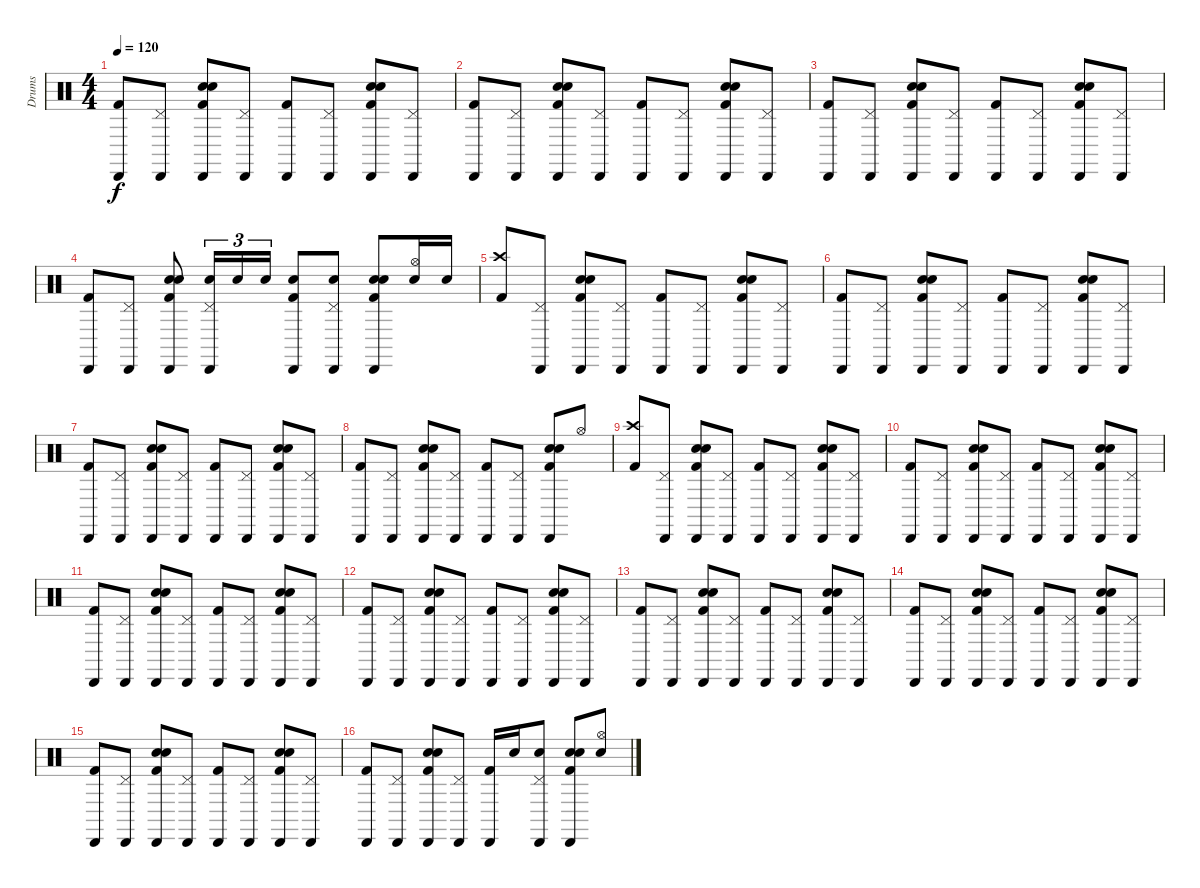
\track ("Drums" "Drums") {instrument percussion}
\staff {score}
\articulation defaults
\ts (4 4)
\tempo 120
\clef neutral
\ks c
("Cabasa (hit)" "Kick (hit) 2").8{dy f} ("Cabasa (hit)" "Pedal Hi-Hat (hit)").8 ("Hand Clap (hit)" "Cabasa (hit)" "Electric Snare (hit)" "Kick (hit) 2").8 ("Cabasa (hit)" "Pedal Hi-Hat (hit)").8 ("Cabasa (hit)" "Kick (hit) 2").8 ("Cabasa (hit)" "Pedal Hi-Hat (hit)").8 ("Hand Clap (hit)" "Cabasa (hit)" "Electric Snare (hit)" "Kick (hit) 2").8 ("Cabasa (hit)" "Pedal Hi-Hat (hit)").8 |
("Cabasa (hit)" "Kick (hit) 2").8 ("Cabasa (hit)" "Pedal Hi-Hat (hit)").8 ("Hand Clap (hit)" "Cabasa (hit)" "Electric Snare (hit)" "Kick (hit) 2").8 ("Cabasa (hit)" "Pedal Hi-Hat (hit)").8 ("Cabasa (hit)" "Kick (hit) 2").8 ("Cabasa (hit)" "Pedal Hi-Hat (hit)").8 ("Hand Clap (hit)" "Cabasa (hit)" "Electric Snare (hit)" "Kick (hit) 2").8 ("Cabasa (hit)" "Pedal Hi-Hat (hit)").8 |
("Cabasa (hit)" "Kick (hit) 2").8 ("Cabasa (hit)" "Pedal Hi-Hat (hit)").8 ("Hand Clap (hit)" "Cabasa (hit)" "Electric Snare (hit)" "Kick (hit) 2").8 ("Cabasa (hit)" "Pedal Hi-Hat (hit)").8 ("Cabasa (hit)" "Kick (hit) 2").8 ("Cabasa (hit)" "Pedal Hi-Hat (hit)").8 ("Hand Clap (hit)" "Cabasa (hit)" "Electric Snare (hit)" "Kick (hit) 2").8 ("Cabasa (hit)" "Pedal Hi-Hat (hit)").8 |
("Cabasa (hit)" "Kick (hit) 2").8 ("Cabasa (hit)" "Pedal Hi-Hat (hit)").8 ("Hand Clap (hit)" "Cabasa (hit)" "Electric Snare (hit)" "Kick (hit) 2").8 ("Cabasa (hit)" "Pedal Hi-Hat (hit)" "Electric Snare (hit)").16{tu (3 2)} "Electric Snare (hit)".16{tu (3 2)} "Electric Snare (hit)".16{tu (3 2)} ("Cabasa (hit)" "Electric Snare (hit)" "Kick (hit) 2").8 ("Cabasa (hit)" "Pedal Hi-Hat (hit)" "Electric Snare (hit)").8 ("Hand Clap (hit)" "Cabasa (hit)" "Electric Snare (hit)" "Kick (hit) 2").8 ("Hi-Hat (open)" "Electric Snare (hit)").16 "Electric Snare (hit)".16 |
("Crash high (hit)" "Kick (hit) 2").8 ("Cabasa (hit)" "Pedal Hi-Hat (hit)").8 ("Hand Clap (hit)" "Cabasa (hit)" "Electric Snare (hit)" "Kick (hit) 2").8 ("Cabasa (hit)" "Pedal Hi-Hat (hit)").8 ("Cabasa (hit)" "Kick (hit) 2").8 ("Cabasa (hit)" "Pedal Hi-Hat (hit)").8 ("Hand Clap (hit)" "Cabasa (hit)" "Electric Snare (hit)" "Kick (hit) 2").8 ("Cabasa (hit)" "Pedal Hi-Hat (hit)").8 |
("Cabasa (hit)" "Kick (hit) 2").8 ("Cabasa (hit)" "Pedal Hi-Hat (hit)").8 ("Hand Clap (hit)" "Cabasa (hit)" "Electric Snare (hit)" "Kick (hit) 2").8 ("Cabasa (hit)" "Pedal Hi-Hat (hit)").8 ("Cabasa (hit)" "Kick (hit) 2").8 ("Cabasa (hit)" "Pedal Hi-Hat (hit)").8 ("Hand Clap (hit)" "Cabasa (hit)" "Electric Snare (hit)" "Kick (hit) 2").8 ("Cabasa (hit)" "Pedal Hi-Hat (hit)").8 |
("Cabasa (hit)" "Kick (hit) 2").8 ("Cabasa (hit)" "Pedal Hi-Hat (hit)").8 ("Hand Clap (hit)" "Cabasa (hit)" "Electric Snare (hit)" "Kick (hit) 2").8 ("Cabasa (hit)" "Pedal Hi-Hat (hit)").8 ("Cabasa (hit)" "Kick (hit) 2").8 ("Cabasa (hit)" "Pedal Hi-Hat (hit)").8 ("Hand Clap (hit)" "Cabasa (hit)" "Electric Snare (hit)" "Kick (hit) 2").8 ("Cabasa (hit)" "Pedal Hi-Hat (hit)").8 |
("Cabasa (hit)" "Kick (hit) 2").8 ("Cabasa (hit)" "Pedal Hi-Hat (hit)").8 ("Hand Clap (hit)" "Cabasa (hit)" "Electric Snare (hit)" "Kick (hit) 2").8 ("Cabasa (hit)" "Pedal Hi-Hat (hit)").8 ("Cabasa (hit)" "Kick (hit) 2").8 ("Cabasa (hit)" "Pedal Hi-Hat (hit)").8 ("Hand Clap (hit)" "Cabasa (hit)" "Electric Snare (hit)" "Kick (hit) 2").8 "Hi-Hat (open)".8 |
("Crash high (hit)" "Kick (hit) 2").8 ("Cabasa (hit)" "Pedal Hi-Hat (hit)").8 ("Hand Clap (hit)" "Cabasa (hit)" "Electric Snare (hit)" "Kick (hit) 2").8 ("Cabasa (hit)" "Pedal Hi-Hat (hit)").8 ("Cabasa (hit)" "Kick (hit) 2").8 ("Cabasa (hit)" "Pedal Hi-Hat (hit)").8 ("Hand Clap (hit)" "Cabasa (hit)" "Electric Snare (hit)" "Kick (hit) 2").8 ("Cabasa (hit)" "Pedal Hi-Hat (hit)").8 |
("Cabasa (hit)" "Kick (hit) 2").8 ("Cabasa (hit)" "Pedal Hi-Hat (hit)").8 ("Hand Clap (hit)" "Cabasa (hit)" "Electric Snare (hit)" "Kick (hit) 2").8 ("Cabasa (hit)" "Pedal Hi-Hat (hit)").8 ("Cabasa (hit)" "Kick (hit) 2").8 ("Cabasa (hit)" "Pedal Hi-Hat (hit)").8 ("Hand Clap (hit)" "Cabasa (hit)" "Electric Snare (hit)" "Kick (hit) 2").8 ("Cabasa (hit)" "Pedal Hi-Hat (hit)").8 |
("Cabasa (hit)" "Kick (hit) 2").8 ("Cabasa (hit)" "Pedal Hi-Hat (hit)").8 ("Hand Clap (hit)" "Cabasa (hit)" "Electric Snare (hit)" "Kick (hit) 2").8 ("Cabasa (hit)" "Pedal Hi-Hat (hit)").8 ("Cabasa (hit)" "Kick (hit) 2").8 ("Cabasa (hit)" "Pedal Hi-Hat (hit)").8 ("Hand Clap (hit)" "Cabasa (hit)" "Electric Snare (hit)" "Kick (hit) 2").8 ("Cabasa (hit)" "Pedal Hi-Hat (hit)").8 |
("Cabasa (hit)" "Kick (hit) 2").8 ("Cabasa (hit)" "Pedal Hi-Hat (hit)").8 ("Hand Clap (hit)" "Cabasa (hit)" "Electric Snare (hit)" "Kick (hit) 2").8 ("Cabasa (hit)" "Pedal Hi-Hat (hit)").8 ("Cabasa (hit)" "Kick (hit) 2").8 ("Cabasa (hit)" "Pedal Hi-Hat (hit)").8 ("Hand Clap (hit)" "Cabasa (hit)" "Electric Snare (hit)" "Kick (hit) 2").8 ("Cabasa (hit)" "Pedal Hi-Hat (hit)").8 |
("Cabasa (hit)" "Kick (hit) 2").8 ("Cabasa (hit)" "Pedal Hi-Hat (hit)").8 ("Hand Clap (hit)" "Cabasa (hit)" "Electric Snare (hit)" "Kick (hit) 2").8 ("Cabasa (hit)" "Pedal Hi-Hat (hit)").8 ("Cabasa (hit)" "Kick (hit) 2").8 ("Cabasa (hit)" "Pedal Hi-Hat (hit)").8 ("Hand Clap (hit)" "Cabasa (hit)" "Electric Snare (hit)" "Kick (hit) 2").8 ("Cabasa (hit)" "Pedal Hi-Hat (hit)").8 |
("Cabasa (hit)" "Kick (hit) 2").8 ("Cabasa (hit)" "Pedal Hi-Hat (hit)").8 ("Hand Clap (hit)" "Cabasa (hit)" "Electric Snare (hit)" "Kick (hit) 2").8 ("Cabasa (hit)" "Pedal Hi-Hat (hit)").8 ("Cabasa (hit)" "Kick (hit) 2").8 ("Cabasa (hit)" "Pedal Hi-Hat (hit)").8 ("Hand Clap (hit)" "Cabasa (hit)" "Electric Snare (hit)" "Kick (hit) 2").8 ("Cabasa (hit)" "Pedal Hi-Hat (hit)").8 |
("Cabasa (hit)" "Kick (hit) 2").8 ("Cabasa (hit)" "Pedal Hi-Hat (hit)").8 ("Hand Clap (hit)" "Cabasa (hit)" "Electric Snare (hit)" "Kick (hit) 2").8 ("Cabasa (hit)" "Pedal Hi-Hat (hit)").8 ("Cabasa (hit)" "Kick (hit) 2").8 ("Cabasa (hit)" "Pedal Hi-Hat (hit)").8 ("Hand Clap (hit)" "Cabasa (hit)" "Electric Snare (hit)" "Kick (hit) 2").8 ("Cabasa (hit)" "Pedal Hi-Hat (hit)").8 |
("Cabasa (hit)" "Kick (hit) 2").8 ("Cabasa (hit)" "Pedal Hi-Hat (hit)").8 ("Hand Clap (hit)" "Cabasa (hit)" "Electric Snare (hit)" "Kick (hit) 2").8 ("Cabasa (hit)" "Pedal Hi-Hat (hit)").8 ("Cabasa (hit)" "Kick (hit) 2").16 "Electric Snare (hit)".16 ("Cabasa (hit)" "Pedal Hi-Hat (hit)" "Electric Snare (hit)").8 ("Hand Clap (hit)" "Cabasa (hit)" "Electric Snare (hit)" "Kick (hit) 2").8 ("Hi-Hat (open)" "Electric Snare (hit)").8
